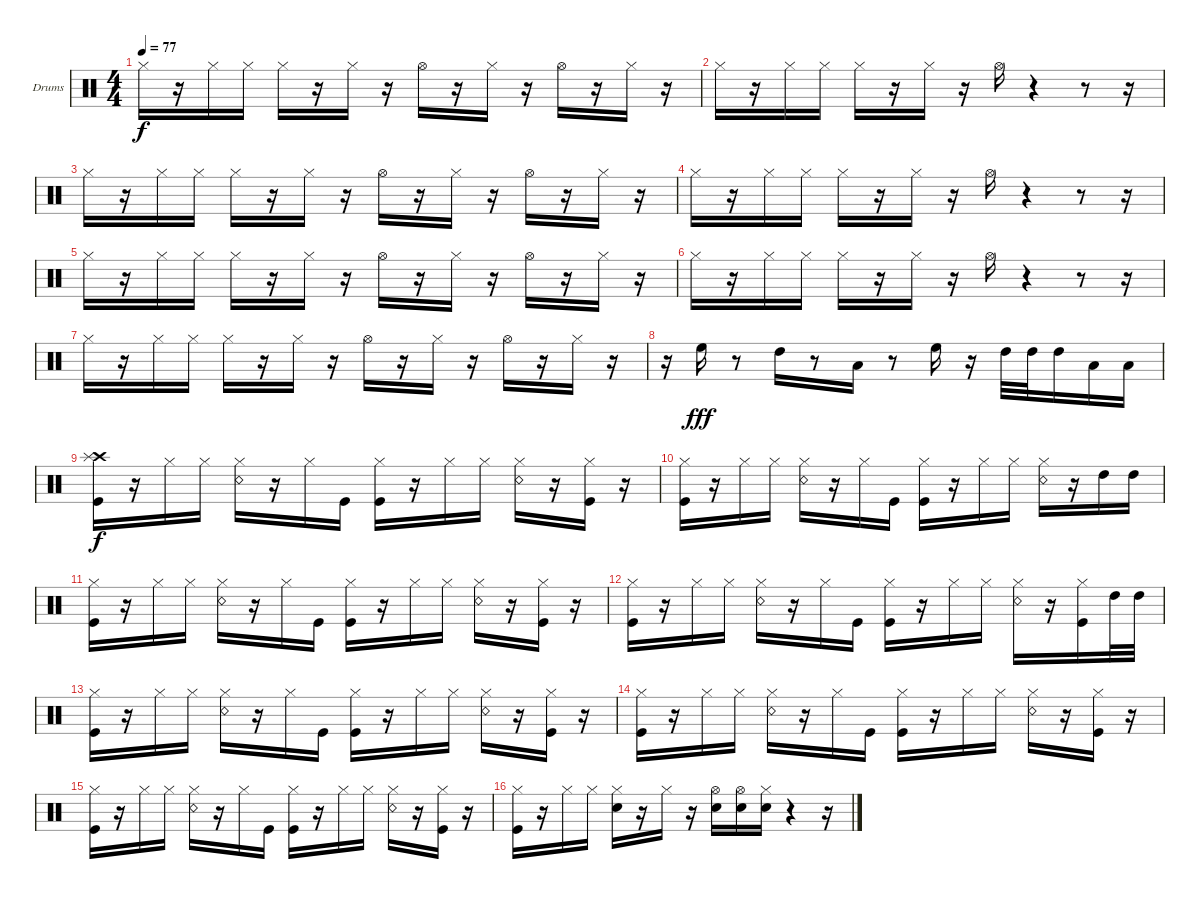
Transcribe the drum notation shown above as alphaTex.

\defaultSystemsLayout 4
\bracketExtendMode groupsimilarinstruments
\firstSystemTrackNameOrientation horizontal
\otherSystemsTrackNameOrientation horizontal
\track ("Drumkit" "Drums") {instrument percussion}
\staff {score}
\articulation defaults
\ts (4 4)
\tempo 77
\clef neutral
\scale
0.333333
\ks c "Hi-Hat (closed)".16{dy f}
r.16 "Hi-Hat (closed)".16 "Hi-Hat (closed)".16 "Hi-Hat (closed)".16 r.16 "Hi-Hat (closed)".16 r.16 "Hi-Hat (open)".16 r.16 "Hi-Hat (closed)".16 r.16 "Hi-Hat (open)".16 r.16 "Hi-Hat (closed)".16 r.16 |
\scale
0.333333 "Hi-Hat (closed)".16 r.16 "Hi-Hat (closed)".16 "Hi-Hat (closed)".16 "Hi-Hat (closed)".16 r.16 "Hi-Hat (closed)".16 r.16 "Hi-Hat (open)".16 r.4 r.8 r.16 |
\scale
0.333333 "Hi-Hat (closed)".16 r.16 "Hi-Hat (closed)".16 "Hi-Hat (closed)".16 "Hi-Hat (closed)".16 r.16 "Hi-Hat (closed)".16 r.16 "Hi-Hat (open)".16 r.16 "Hi-Hat (closed)".16 r.16 "Hi-Hat (open)".16 r.16 "Hi-Hat (closed)".16 r.16 |
\scale
0.333333 "Hi-Hat (closed)".16 r.16 "Hi-Hat (closed)".16 "Hi-Hat (closed)".16 "Hi-Hat (closed)".16 r.16 "Hi-Hat (closed)".16 r.16 "Hi-Hat (open)".16 r.4 r.8 r.16 |
\scale
0.333333 "Hi-Hat (closed)".16 r.16 "Hi-Hat (closed)".16 "Hi-Hat (closed)".16 "Hi-Hat (closed)".16 r.16 "Hi-Hat (closed)".16 r.16 "Hi-Hat (open)".16 r.16 "Hi-Hat (closed)".16 r.16 "Hi-Hat (open)".16 r.16 "Hi-Hat (closed)".16 r.16 |
\scale
0.333333 "Hi-Hat (closed)".16 r.16 "Hi-Hat (closed)".16 "Hi-Hat (closed)".16 "Hi-Hat (closed)".16 r.16 "Hi-Hat (closed)".16 r.16 "Hi-Hat (open)".16 r.4 r.8 r.16 |
\scale
0.333333 "Hi-Hat (closed)".16 r.16 "Hi-Hat (closed)".16 "Hi-Hat (closed)".16 "Hi-Hat (closed)".16 r.16 "Hi-Hat (closed)".16 r.16 "Hi-Hat (open)".16 r.16 "Hi-Hat (closed)".16 r.16 "Hi-Hat (open)".16 r.16 "Hi-Hat (closed)".16 r.16 |
\scale
0.333333 r.16 "High Floor Tom (hit)".16{dy fff} r.8 "High Tom (hit)".16 r.8 "Low Tom (hit)".16 r.8 "High Floor Tom (hit)".16 r.16 "High Tom (hit)".32 "High Tom (hit)".32 "High Tom (hit)".16 "Low Tom (hit)".16 "Low Tom (hit)".16 |
\scale
0.333333 ("Kick (hit)" "Crash high (hit)" "Splash (hit)").16{dy f} r.16 "Hi-Hat (closed)".16 "Hi-Hat (closed)".16 ("Snare (rim shot)" "Hi-Hat (closed)").16 r.16 "Hi-Hat (closed)".16 "Kick (hit)".16 ("Kick (hit)" "Hi-Hat (closed)").16 r.16 "Hi-Hat (closed)".16 "Hi-Hat (closed)".16 ("Snare (rim shot)" "Hi-Hat (closed)").16 r.16 ("Kick (hit)" "Hi-Hat (closed)").16 r.16 |
\scale
0.333333 ("Kick (hit)" "Hi-Hat (closed)").16 r.16 "Hi-Hat (closed)".16 "Hi-Hat (closed)".16 ("Snare (rim shot)" "Hi-Hat (closed)").16 r.16 "Hi-Hat (closed)".16 "Kick (hit)".16 ("Kick (hit)" "Hi-Hat (closed)").16 r.16 "Hi-Hat (closed)".16 "Hi-Hat (closed)".16 ("Snare (rim shot)" "Hi-Hat (closed)").16 r.16 "High Tom (hit)".16 "High Tom (hit)".16 |
\scale
0.333333 ("Kick (hit)" "Hi-Hat (closed)").16 r.16 "Hi-Hat (closed)".16 "Hi-Hat (closed)".16 ("Snare (rim shot)" "Hi-Hat (closed)").16 r.16 "Hi-Hat (closed)".16 "Kick (hit)".16 ("Kick (hit)" "Hi-Hat (closed)").16 r.16 "Hi-Hat (closed)".16 "Hi-Hat (closed)".16 ("Snare (rim shot)" "Hi-Hat (closed)").16 r.16 ("Kick (hit)" "Hi-Hat (closed)").16 r.16 |
\scale
0.333333 ("Kick (hit)" "Hi-Hat (closed)").16 r.16 "Hi-Hat (closed)".16 "Hi-Hat (closed)".16 ("Snare (rim shot)" "Hi-Hat (closed)").16 r.16 "Hi-Hat (closed)".16 "Kick (hit)".16 ("Kick (hit)" "Hi-Hat (closed)").16 r.16 "Hi-Hat (closed)".16 "Hi-Hat (closed)".16 ("Snare (rim shot)" "Hi-Hat (closed)").16 r.16 ("Kick (hit)" "Hi-Hat (closed)").16 "High Tom (hit)".32 "High Tom (hit)".32 |
\scale
0.333333 ("Kick (hit)" "Hi-Hat (closed)").16 r.16 "Hi-Hat (closed)".16 "Hi-Hat (closed)".16 ("Snare (rim shot)" "Hi-Hat (closed)").16 r.16 "Hi-Hat (closed)".16 "Kick (hit)".16 ("Kick (hit)" "Hi-Hat (closed)").16 r.16 "Hi-Hat (closed)".16 "Hi-Hat (closed)".16 ("Snare (rim shot)" "Hi-Hat (closed)").16 r.16 ("Kick (hit)" "Hi-Hat (closed)").16 r.16 |
\scale
0.333333 ("Kick (hit)" "Hi-Hat (closed)").16 r.16 "Hi-Hat (closed)".16 "Hi-Hat (closed)".16 ("Snare (rim shot)" "Hi-Hat (closed)").16 r.16 "Hi-Hat (closed)".16 "Kick (hit)".16 ("Kick (hit)" "Hi-Hat (closed)").16 r.16 "Hi-Hat (closed)".16 "Hi-Hat (closed)".16 ("Snare (rim shot)" "Hi-Hat (closed)").16 r.16 ("Kick (hit)" "Hi-Hat (closed)").16 r.16 |
\scale
0.333333 ("Kick (hit)" "Hi-Hat (closed)").16 r.16 "Hi-Hat (closed)".16 "Hi-Hat (closed)".16 ("Snare (rim shot)" "Hi-Hat (closed)").16 r.16 "Hi-Hat (closed)".16 "Kick (hit)".16 ("Kick (hit)" "Hi-Hat (closed)").16 r.16 "Hi-Hat (closed)".16 "Hi-Hat (closed)".16 ("Snare (rim shot)" "Hi-Hat (closed)").16 r.16 ("Kick (hit)" "Hi-Hat (closed)").16 r.16 |
\scale
0.333333 ("Kick (hit)" "Hi-Hat (closed)").16 r.16 "Hi-Hat (closed)".16 "Hi-Hat (closed)".16 ("Snare (hit) 2" "Hi-Hat (closed)").16 r.16 "Hi-Hat (closed)".16 r.16 ("Hi-Hat (open)" "Snare (hit) 2").16 ("Hi-Hat (open)" "Snare (hit) 2").16 ("Hi-Hat (closed)" "Snare (hit) 2").16 r.4 r.16
